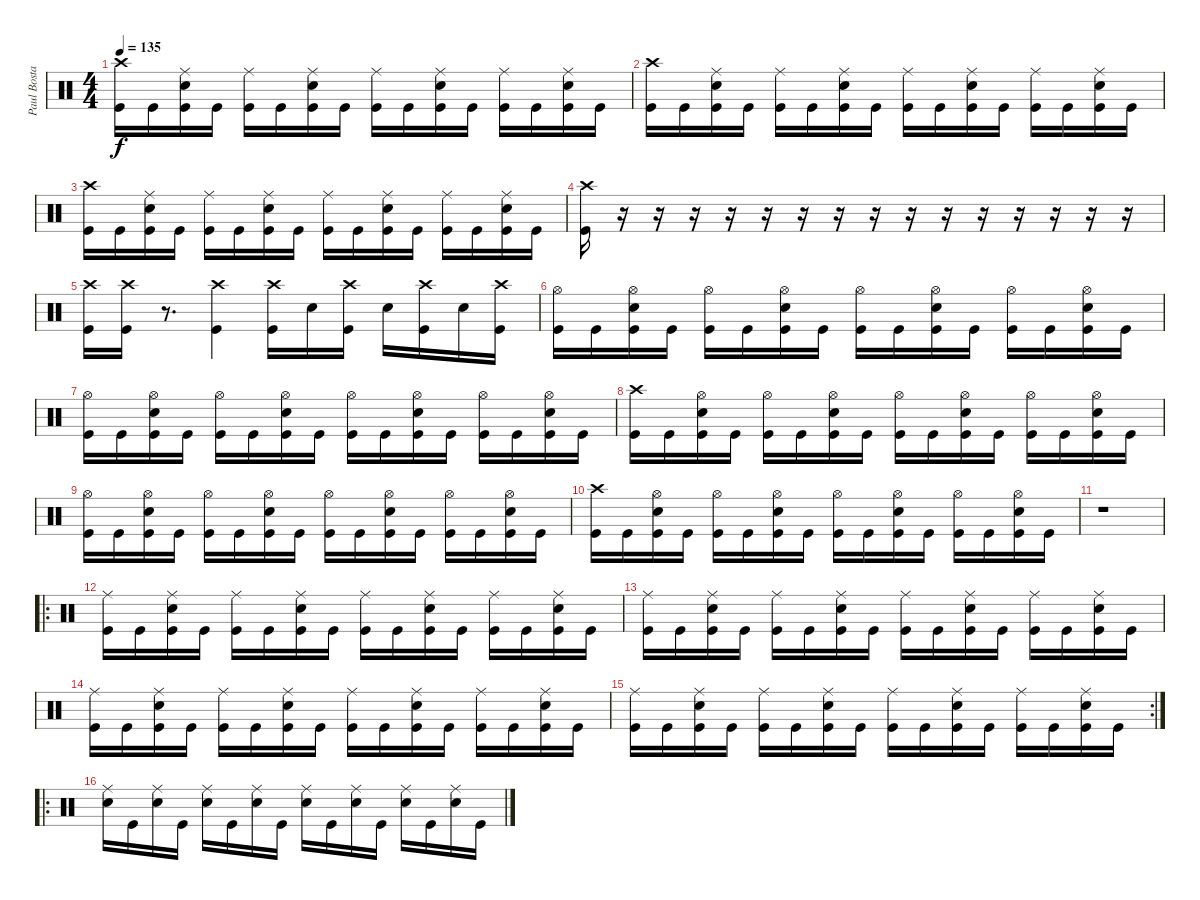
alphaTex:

\track ("Paul Bostaph" "Paul Bosta") {instrument percussion}
\staff {score}
\articulation defaults
\ts (4 4)
\tempo 135
\clef neutral
\ks c
("Crash high (hit)" "Kick (hit)").16{dy f} "Kick (hit)".16 ("Ride (middle)" "Snare (hit) 2" "Kick (hit)").16 "Kick (hit)".16 ("Ride (middle)" "Kick (hit)").16 "Kick (hit)".16 ("Ride (middle)" "Snare (hit) 2" "Kick (hit)").16 "Kick (hit)".16 ("Ride (middle)" "Kick (hit)").16 "Kick (hit)".16 ("Ride (middle)" "Snare (hit) 2" "Kick (hit)").16 "Kick (hit)".16 ("Ride (middle)" "Kick (hit)").16 "Kick (hit)".16 ("Ride (middle)" "Snare (hit) 2" "Kick (hit)").16 "Kick (hit)".16 |
("Crash high (hit)" "Kick (hit)").16 "Kick (hit)".16 ("Ride (middle)" "Snare (hit) 2" "Kick (hit)").16 "Kick (hit)".16 ("Ride (middle)" "Kick (hit)").16 "Kick (hit)".16 ("Ride (middle)" "Snare (hit) 2" "Kick (hit)").16 "Kick (hit)".16 ("Ride (middle)" "Kick (hit)").16 "Kick (hit)".16 ("Ride (middle)" "Snare (hit) 2" "Kick (hit)").16 "Kick (hit)".16 ("Ride (middle)" "Kick (hit)").16 "Kick (hit)".16 ("Ride (middle)" "Snare (hit) 2" "Kick (hit)").16 "Kick (hit)".16 |
("Crash high (hit)" "Kick (hit)").16 "Kick (hit)".16 ("Ride (middle)" "Snare (hit) 2" "Kick (hit)").16 "Kick (hit)".16 ("Ride (middle)" "Kick (hit)").16 "Kick (hit)".16 ("Ride (middle)" "Snare (hit) 2" "Kick (hit)").16 "Kick (hit)".16 ("Ride (middle)" "Kick (hit)").16 "Kick (hit)".16 ("Ride (middle)" "Snare (hit) 2" "Kick (hit)").16 "Kick (hit)".16 ("Ride (middle)" "Kick (hit)").16 "Kick (hit)".16 ("Ride (middle)" "Snare (hit) 2" "Kick (hit)").16 "Kick (hit)".16 |
("Crash high (hit)" "Kick (hit)").16 r.16 r.16 r.16 r.16 r.16 r.16 r.16 r.16 r.16 r.16 r.16 r.16 r.16 r.16 r.16 |
("Crash high (hit)" "Kick (hit)").16 ("Kick (hit)" "Crash high (hit)").16 r.8{d} ("Crash high (hit)" "Kick (hit)").4 ("Crash high (hit)" "Kick (hit)").16 "Snare (hit) 2".16 ("Crash high (hit)" "Kick (hit)").16 "Snare (hit) 2".16 ("Crash high (hit)" "Kick (hit)").16 "Snare (hit) 2".16 ("Crash high (hit)" "Kick (hit)").16 |
("Hi-Hat (open)" "Kick (hit)").16 "Kick (hit)".16 ("Hi-Hat (open)" "Snare (hit) 2" "Kick (hit)").16 "Kick (hit)".16 ("Hi-Hat (open)" "Kick (hit)").16 "Kick (hit)".16 ("Hi-Hat (open)" "Snare (hit) 2" "Kick (hit)").16 "Kick (hit)".16 ("Hi-Hat (open)" "Kick (hit)").16 "Kick (hit)".16 ("Hi-Hat (open)" "Snare (hit) 2" "Kick (hit)").16 "Kick (hit)".16 ("Hi-Hat (open)" "Kick (hit)").16 "Kick (hit)".16 ("Hi-Hat (open)" "Snare (hit) 2" "Kick (hit)").16 "Kick (hit)".16 |
("Hi-Hat (open)" "Kick (hit)").16 "Kick (hit)".16 ("Hi-Hat (open)" "Snare (hit) 2" "Kick (hit)").16 "Kick (hit)".16 ("Hi-Hat (open)" "Kick (hit)").16 "Kick (hit)".16 ("Hi-Hat (open)" "Snare (hit) 2" "Kick (hit)").16 "Kick (hit)".16 ("Hi-Hat (open)" "Kick (hit)").16 "Kick (hit)".16 ("Hi-Hat (open)" "Snare (hit) 2" "Kick (hit)").16 "Kick (hit)".16 ("Hi-Hat (open)" "Kick (hit)").16 "Kick (hit)".16 ("Hi-Hat (open)" "Snare (hit) 2" "Kick (hit)").16 "Kick (hit)".16 |
("Crash high (hit)" "Kick (hit)").16 "Kick (hit)".16 ("Hi-Hat (open)" "Snare (hit) 2" "Kick (hit)").16 "Kick (hit)".16 ("Hi-Hat (open)" "Kick (hit)").16 "Kick (hit)".16 ("Hi-Hat (open)" "Snare (hit) 2" "Kick (hit)").16 "Kick (hit)".16 ("Hi-Hat (open)" "Kick (hit)").16 "Kick (hit)".16 ("Hi-Hat (open)" "Snare (hit) 2" "Kick (hit)").16 "Kick (hit)".16 ("Hi-Hat (open)" "Kick (hit)").16 "Kick (hit)".16 ("Hi-Hat (open)" "Snare (hit) 2" "Kick (hit)").16 "Kick (hit)".16 |
("Hi-Hat (open)" "Kick (hit)").16 "Kick (hit)".16 ("Hi-Hat (open)" "Snare (hit) 2" "Kick (hit)").16 "Kick (hit)".16 ("Hi-Hat (open)" "Kick (hit)").16 "Kick (hit)".16 ("Hi-Hat (open)" "Snare (hit) 2" "Kick (hit)").16 "Kick (hit)".16 ("Hi-Hat (open)" "Kick (hit)").16 "Kick (hit)".16 ("Hi-Hat (open)" "Snare (hit) 2" "Kick (hit)").16 "Kick (hit)".16 ("Hi-Hat (open)" "Kick (hit)").16 "Kick (hit)".16 ("Hi-Hat (open)" "Snare (hit) 2" "Kick (hit)").16 "Kick (hit)".16 |
("Crash high (hit)" "Kick (hit)").16 "Kick (hit)".16 ("Hi-Hat (open)" "Snare (hit) 2" "Kick (hit)").16 "Kick (hit)".16 ("Hi-Hat (open)" "Kick (hit)").16 "Kick (hit)".16 ("Hi-Hat (open)" "Snare (hit) 2" "Kick (hit)").16 "Kick (hit)".16 ("Hi-Hat (open)" "Kick (hit)").16 "Kick (hit)".16 ("Hi-Hat (open)" "Snare (hit) 2" "Kick (hit)").16 "Kick (hit)".16 ("Hi-Hat (open)" "Kick (hit)").16 "Kick (hit)".16 ("Hi-Hat (open)" "Snare (hit) 2" "Kick (hit)").16 "Kick (hit)".16 |
r.1 |
\ro
("Ride (middle)" "Kick (hit)").16 "Kick (hit)".16 ("Ride (middle)" "Snare (hit) 2" "Kick (hit)").16 "Kick (hit)".16 ("Ride (middle)" "Kick (hit)").16 "Kick (hit)".16 ("Ride (middle)" "Snare (hit) 2" "Kick (hit)").16 "Kick (hit)".16 ("Ride (middle)" "Kick (hit)").16 "Kick (hit)".16 ("Ride (middle)" "Snare (hit) 2" "Kick (hit)").16 "Kick (hit)".16 ("Ride (middle)" "Kick (hit)").16 "Kick (hit)".16 ("Ride (middle)" "Snare (hit) 2" "Kick (hit)").16 "Kick (hit)".16 |
("Ride (middle)" "Kick (hit)").16 "Kick (hit)".16 ("Ride (middle)" "Snare (hit) 2" "Kick (hit)").16 "Kick (hit)".16 ("Ride (middle)" "Kick (hit)").16 "Kick (hit)".16 ("Ride (middle)" "Snare (hit) 2" "Kick (hit)").16 "Kick (hit)".16 ("Ride (middle)" "Kick (hit)").16 "Kick (hit)".16 ("Ride (middle)" "Snare (hit) 2" "Kick (hit)").16 "Kick (hit)".16 ("Ride (middle)" "Kick (hit)").16 "Kick (hit)".16 ("Ride (middle)" "Snare (hit) 2" "Kick (hit)").16 "Kick (hit)".16 |
("Ride (middle)" "Kick (hit)").16 "Kick (hit)".16 ("Ride (middle)" "Snare (hit) 2" "Kick (hit)").16 "Kick (hit)".16 ("Ride (middle)" "Kick (hit)").16 "Kick (hit)".16 ("Ride (middle)" "Snare (hit) 2" "Kick (hit)").16 "Kick (hit)".16 ("Ride (middle)" "Kick (hit)").16 "Kick (hit)".16 ("Ride (middle)" "Snare (hit) 2" "Kick (hit)").16 "Kick (hit)".16 ("Ride (middle)" "Kick (hit)").16 "Kick (hit)".16 ("Ride (middle)" "Snare (hit) 2" "Kick (hit)").16 "Kick (hit)".16 |
\rc 2
("Ride (middle)" "Kick (hit)").16 "Kick (hit)".16 ("Ride (middle)" "Snare (hit) 2" "Kick (hit)").16 "Kick (hit)".16 ("Ride (middle)" "Kick (hit)").16 "Kick (hit)".16 ("Ride (middle)" "Snare (hit) 2" "Kick (hit)").16 "Kick (hit)".16 ("Ride (middle)" "Kick (hit)").16 "Kick (hit)".16 ("Ride (middle)" "Snare (hit) 2" "Kick (hit)").16 "Kick (hit)".16 ("Ride (middle)" "Kick (hit)").16 "Kick (hit)".16 ("Ride (middle)" "Snare (hit) 2" "Kick (hit)").16 "Kick (hit)".16 |
\ro
("Ride (middle)" "Snare (hit) 2").16 "Kick (hit)".16 ("Ride (middle)" "Snare (hit) 2").16 "Kick (hit)".16 ("Ride (middle)" "Snare (hit) 2").16 "Kick (hit)".16 ("Ride (middle)" "Snare (hit) 2").16 "Kick (hit)".16 ("Ride (middle)" "Snare (hit) 2").16 "Kick (hit)".16 ("Ride (middle)" "Snare (hit) 2").16 "Kick (hit)".16 ("Ride (middle)" "Snare (hit) 2").16 "Kick (hit)".16 ("Ride (middle)" "Snare (hit) 2").16 "Kick (hit)".16
